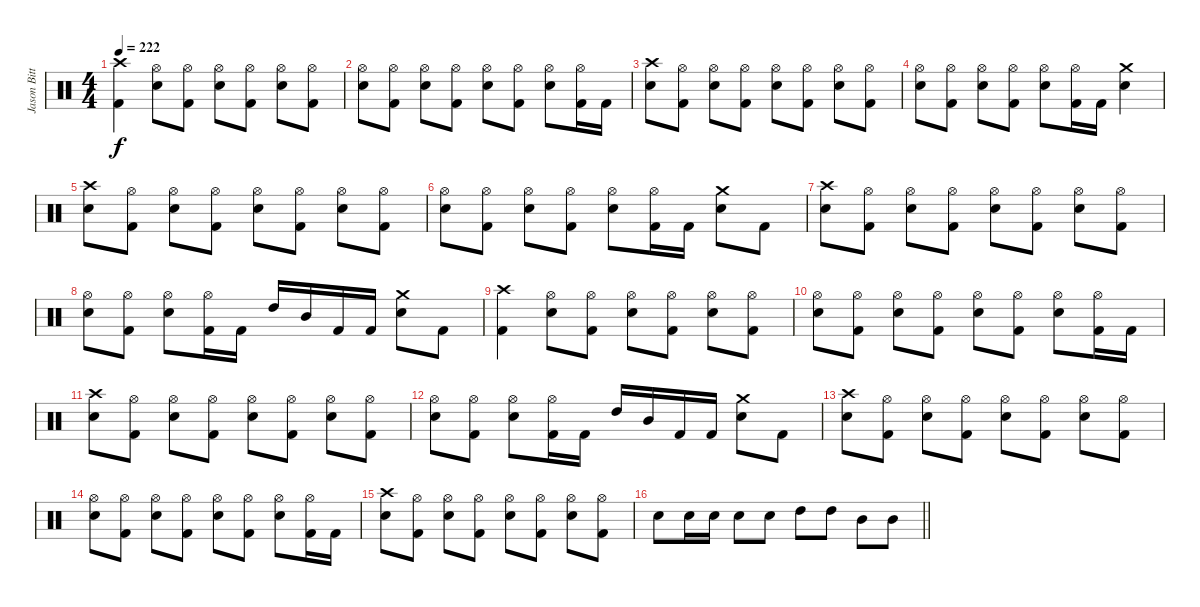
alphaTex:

\track ("Jason Bittner" "Jason Bitt") {instrument percussion}
\staff {score}
\articulation defaults
\ts (4 4)
\tempo 222
\clef neutral
\ks c
("Crash high (hit)" "Kick (hit) 2").4{dy f} ("Hi-Hat (open)" "Electric Snare (hit)").8 ("Hi-Hat (open)" "Kick (hit) 2").8 ("Hi-Hat (open)" "Electric Snare (hit)").8 ("Hi-Hat (open)" "Kick (hit) 2").8 ("Hi-Hat (open)" "Electric Snare (hit)").8 ("Hi-Hat (open)" "Kick (hit) 2").8 |
("Hi-Hat (open)" "Electric Snare (hit)").8 ("Hi-Hat (open)" "Kick (hit) 2").8 ("Hi-Hat (open)" "Electric Snare (hit)").8 ("Hi-Hat (open)" "Kick (hit) 2").8 ("Hi-Hat (open)" "Electric Snare (hit)").8 ("Hi-Hat (open)" "Kick (hit) 2").8 ("Hi-Hat (open)" "Electric Snare (hit)").8 ("Hi-Hat (open)" "Kick (hit) 2").16 "Kick (hit) 2".16 |
("Crash high (hit)" "Electric Snare (hit)").8 ("Hi-Hat (open)" "Kick (hit) 2").8 ("Hi-Hat (open)" "Electric Snare (hit)").8 ("Hi-Hat (open)" "Kick (hit) 2").8 ("Hi-Hat (open)" "Electric Snare (hit)").8 ("Hi-Hat (open)" "Kick (hit) 2").8 ("Hi-Hat (open)" "Electric Snare (hit)").8 ("Hi-Hat (open)" "Kick (hit) 2").8 |
("Hi-Hat (open)" "Electric Snare (hit)").8 ("Hi-Hat (open)" "Kick (hit) 2").8 ("Hi-Hat (open)" "Electric Snare (hit)").8 ("Hi-Hat (open)" "Kick (hit) 2").8 ("Hi-Hat (open)" "Electric Snare (hit)").8 ("Hi-Hat (open)" "Kick (hit) 2").16 "Kick (hit) 2".16 ("Crash medium (hit)" "Electric Snare (hit)").4 |
("Crash high (hit)" "Electric Snare (hit)").8 ("Hi-Hat (open)" "Kick (hit) 2").8 ("Hi-Hat (open)" "Electric Snare (hit)").8 ("Hi-Hat (open)" "Kick (hit) 2").8 ("Hi-Hat (open)" "Electric Snare (hit)").8 ("Hi-Hat (open)" "Kick (hit) 2").8 ("Hi-Hat (open)" "Electric Snare (hit)").8 ("Hi-Hat (open)" "Kick (hit) 2").8 |
("Hi-Hat (open)" "Electric Snare (hit)").8 ("Hi-Hat (open)" "Kick (hit) 2").8 ("Hi-Hat (open)" "Electric Snare (hit)").8 ("Hi-Hat (open)" "Kick (hit) 2").8 ("Hi-Hat (open)" "Electric Snare (hit)").8 ("Hi-Hat (open)" "Kick (hit) 2").16 "Kick (hit) 2".16 ("Crash medium (hit)" "Electric Snare (hit)").8 "Kick (hit) 2".8 |
("Crash high (hit)" "Electric Snare (hit)").8 ("Hi-Hat (open)" "Kick (hit) 2").8 ("Hi-Hat (open)" "Electric Snare (hit)").8 ("Hi-Hat (open)" "Kick (hit) 2").8 ("Hi-Hat (open)" "Electric Snare (hit)").8 ("Hi-Hat (open)" "Kick (hit) 2").8 ("Hi-Hat (open)" "Electric Snare (hit)").8 ("Hi-Hat (open)" "Kick (hit) 2").8 |
("Hi-Hat (open)" "Electric Snare (hit)").8 ("Hi-Hat (open)" "Kick (hit) 2").8 ("Hi-Hat (open)" "Electric Snare (hit)").8 ("Hi-Hat (open)" "Kick (hit) 2").16 "Kick (hit) 2".16 "High Tom (hit)".16 "Mid Tom (hit)".16 "Kick (hit) 2".16 "Kick (hit) 2".16 ("Crash medium (hit)" "Electric Snare (hit)").8 "Kick (hit) 2".8 |
("Crash high (hit)" "Kick (hit) 2").4 ("Hi-Hat (open)" "Electric Snare (hit)").8 ("Hi-Hat (open)" "Kick (hit) 2").8 ("Hi-Hat (open)" "Electric Snare (hit)").8 ("Hi-Hat (open)" "Kick (hit) 2").8 ("Hi-Hat (open)" "Electric Snare (hit)").8 ("Hi-Hat (open)" "Kick (hit) 2").8 |
("Hi-Hat (open)" "Electric Snare (hit)").8 ("Hi-Hat (open)" "Kick (hit) 2").8 ("Hi-Hat (open)" "Electric Snare (hit)").8 ("Hi-Hat (open)" "Kick (hit) 2").8 ("Hi-Hat (open)" "Electric Snare (hit)").8 ("Hi-Hat (open)" "Kick (hit) 2").8 ("Hi-Hat (open)" "Electric Snare (hit)").8 ("Hi-Hat (open)" "Kick (hit) 2").16 "Kick (hit) 2".16 |
("Crash high (hit)" "Electric Snare (hit)").8 ("Hi-Hat (open)" "Kick (hit) 2").8 ("Hi-Hat (open)" "Electric Snare (hit)").8 ("Hi-Hat (open)" "Kick (hit) 2").8 ("Hi-Hat (open)" "Electric Snare (hit)").8 ("Hi-Hat (open)" "Kick (hit) 2").8 ("Hi-Hat (open)" "Electric Snare (hit)").8 ("Hi-Hat (open)" "Kick (hit) 2").8 |
("Hi-Hat (open)" "Electric Snare (hit)").8 ("Hi-Hat (open)" "Kick (hit) 2").8 ("Hi-Hat (open)" "Electric Snare (hit)").8 ("Hi-Hat (open)" "Kick (hit) 2").16 "Kick (hit) 2".16 "High Tom (hit)".16 "Mid Tom (hit)".16 "Kick (hit) 2".16 "Kick (hit) 2".16 ("Crash medium (hit)" "Electric Snare (hit)").8 "Kick (hit) 2".8 |
("Crash high (hit)" "Electric Snare (hit)").8 ("Hi-Hat (open)" "Kick (hit) 2").8 ("Hi-Hat (open)" "Electric Snare (hit)").8 ("Hi-Hat (open)" "Kick (hit) 2").8 ("Hi-Hat (open)" "Electric Snare (hit)").8 ("Hi-Hat (open)" "Kick (hit) 2").8 ("Hi-Hat (open)" "Electric Snare (hit)").8 ("Hi-Hat (open)" "Kick (hit) 2").8 |
("Hi-Hat (open)" "Electric Snare (hit)").8 ("Hi-Hat (open)" "Kick (hit) 2").8 ("Hi-Hat (open)" "Electric Snare (hit)").8 ("Hi-Hat (open)" "Kick (hit) 2").8 ("Hi-Hat (open)" "Electric Snare (hit)").8 ("Hi-Hat (open)" "Kick (hit) 2").8 ("Hi-Hat (open)" "Electric Snare (hit)").8 ("Hi-Hat (open)" "Kick (hit) 2").16 "Kick (hit) 2".16 |
("Crash high (hit)" "Electric Snare (hit)").8 ("Hi-Hat (open)" "Kick (hit) 2").8 ("Hi-Hat (open)" "Electric Snare (hit)").8 ("Hi-Hat (open)" "Kick (hit) 2").8 ("Hi-Hat (open)" "Electric Snare (hit)").8 ("Hi-Hat (open)" "Kick (hit) 2").8 ("Hi-Hat (open)" "Electric Snare (hit)").8 ("Hi-Hat (open)" "Kick (hit) 2").8 |
\barLineRight lightlight "Electric Snare (hit)".8 "Electric Snare (hit)".16 "Electric Snare (hit)".16 "Electric Snare (hit)".8 "Electric Snare (hit)".8 "High Tom (hit)".8 "High Tom (hit)".8 "Mid Tom (hit)".8 "Mid Tom (hit)".8
